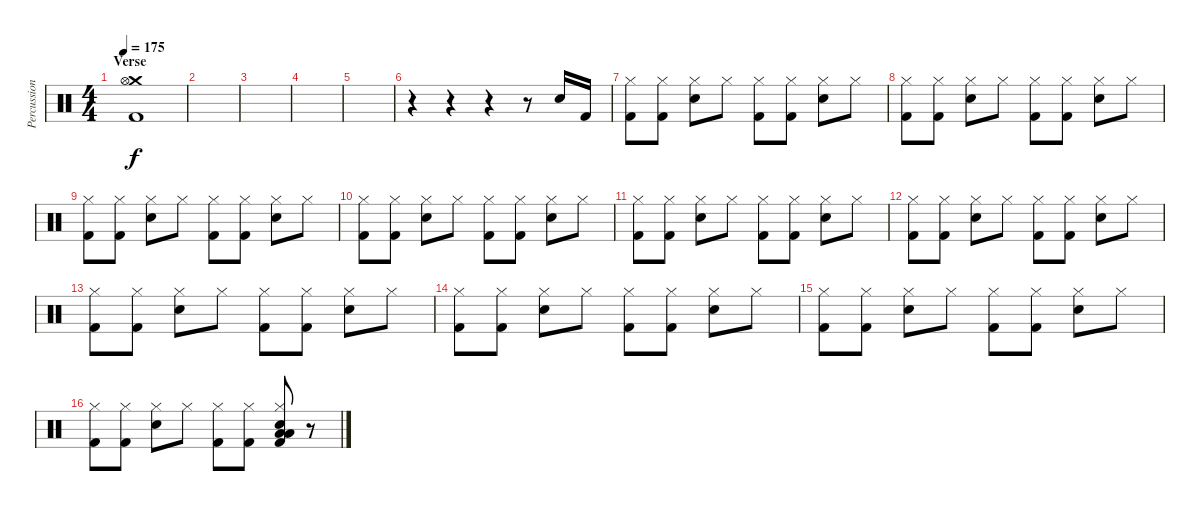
\track ("Percussions" "Percussion") {instrument percussion}
\staff {score}
\articulation defaults
\ts (4 4)
\section ("" "Verse")
\tempo 175
\clef neutral
\ks c
("Crash medium (hit)" "Hi-Hat (open)" "Kick (hit) 2").1{dy f} |
|
|
|
|
r.4 r.4 r.4 r.8 "Snare (hit) 2".16 "Kick (hit) 2".16 |
("Hi-Hat (closed)" "Kick (hit) 2").8 ("Hi-Hat (closed)" "Kick (hit) 2").8 ("Hi-Hat (closed)" "Snare (hit) 2").8 "Hi-Hat (closed)".8 ("Hi-Hat (closed)" "Kick (hit) 2").8 ("Hi-Hat (closed)" "Kick (hit) 2").8 ("Hi-Hat (closed)" "Snare (hit) 2").8 "Hi-Hat (closed)".8 |
("Hi-Hat (closed)" "Kick (hit) 2").8 ("Hi-Hat (closed)" "Kick (hit) 2").8 ("Hi-Hat (closed)" "Snare (hit) 2").8 "Hi-Hat (closed)".8 ("Hi-Hat (closed)" "Kick (hit) 2").8 ("Hi-Hat (closed)" "Kick (hit) 2").8 ("Hi-Hat (closed)" "Snare (hit) 2").8 "Hi-Hat (closed)".8 |
("Hi-Hat (closed)" "Kick (hit) 2").8 ("Hi-Hat (closed)" "Kick (hit) 2").8 ("Hi-Hat (closed)" "Snare (hit) 2").8 "Hi-Hat (closed)".8 ("Hi-Hat (closed)" "Kick (hit) 2").8 ("Hi-Hat (closed)" "Kick (hit) 2").8 ("Hi-Hat (closed)" "Snare (hit) 2").8 "Hi-Hat (closed)".8 |
("Hi-Hat (closed)" "Kick (hit) 2").8 ("Hi-Hat (closed)" "Kick (hit) 2").8 ("Hi-Hat (closed)" "Snare (hit) 2").8 "Hi-Hat (closed)".8 ("Hi-Hat (closed)" "Kick (hit) 2").8 ("Hi-Hat (closed)" "Kick (hit) 2").8 ("Hi-Hat (closed)" "Snare (hit) 2").8 "Hi-Hat (closed)".8 |
("Hi-Hat (closed)" "Kick (hit) 2").8 ("Hi-Hat (closed)" "Kick (hit) 2").8 ("Hi-Hat (closed)" "Snare (hit) 2").8 "Hi-Hat (closed)".8 ("Hi-Hat (closed)" "Kick (hit) 2").8 ("Hi-Hat (closed)" "Kick (hit) 2").8 ("Hi-Hat (closed)" "Snare (hit) 2").8 "Hi-Hat (closed)".8 |
("Hi-Hat (closed)" "Kick (hit) 2").8 ("Hi-Hat (closed)" "Kick (hit) 2").8 ("Hi-Hat (closed)" "Snare (hit) 2").8 "Hi-Hat (closed)".8 ("Hi-Hat (closed)" "Kick (hit) 2").8 ("Hi-Hat (closed)" "Kick (hit) 2").8 ("Hi-Hat (closed)" "Snare (hit) 2").8 "Hi-Hat (closed)".8 |
("Hi-Hat (closed)" "Kick (hit) 2").8 ("Hi-Hat (closed)" "Kick (hit) 2").8 ("Hi-Hat (closed)" "Snare (hit) 2").8 "Hi-Hat (closed)".8 ("Hi-Hat (closed)" "Kick (hit) 2").8 ("Hi-Hat (closed)" "Kick (hit) 2").8 ("Hi-Hat (closed)" "Snare (hit) 2").8 "Hi-Hat (closed)".8 |
("Hi-Hat (closed)" "Kick (hit) 2").8 ("Hi-Hat (closed)" "Kick (hit) 2").8 ("Hi-Hat (closed)" "Snare (hit) 2").8 "Hi-Hat (closed)".8 ("Hi-Hat (closed)" "Kick (hit) 2").8 ("Hi-Hat (closed)" "Kick (hit) 2").8 ("Hi-Hat (closed)" "Snare (hit) 2").8 "Hi-Hat (closed)".8 |
("Hi-Hat (closed)" "Kick (hit) 2").8 ("Hi-Hat (closed)" "Kick (hit) 2").8 ("Hi-Hat (closed)" "Snare (hit) 2").8 "Hi-Hat (closed)".8 ("Hi-Hat (closed)" "Kick (hit) 2").8 ("Hi-Hat (closed)" "Kick (hit) 2").8 ("Hi-Hat (closed)" "Snare (hit) 2").8 "Hi-Hat (closed)".8 |
("Hi-Hat (closed)" "Kick (hit) 2").8 ("Hi-Hat (closed)" "Kick (hit) 2").8 ("Hi-Hat (closed)" "Snare (hit) 2").8 "Hi-Hat (closed)".8 ("Hi-Hat (closed)" "Kick (hit) 2").8 ("Hi-Hat (closed)" "Kick (hit) 2").8 ("Hi-Hat (closed)" "Snare (hit) 2" "Low Floor Tom (hit)" "Low Tom (hit)" "Kick (hit) 2").8 r.8
